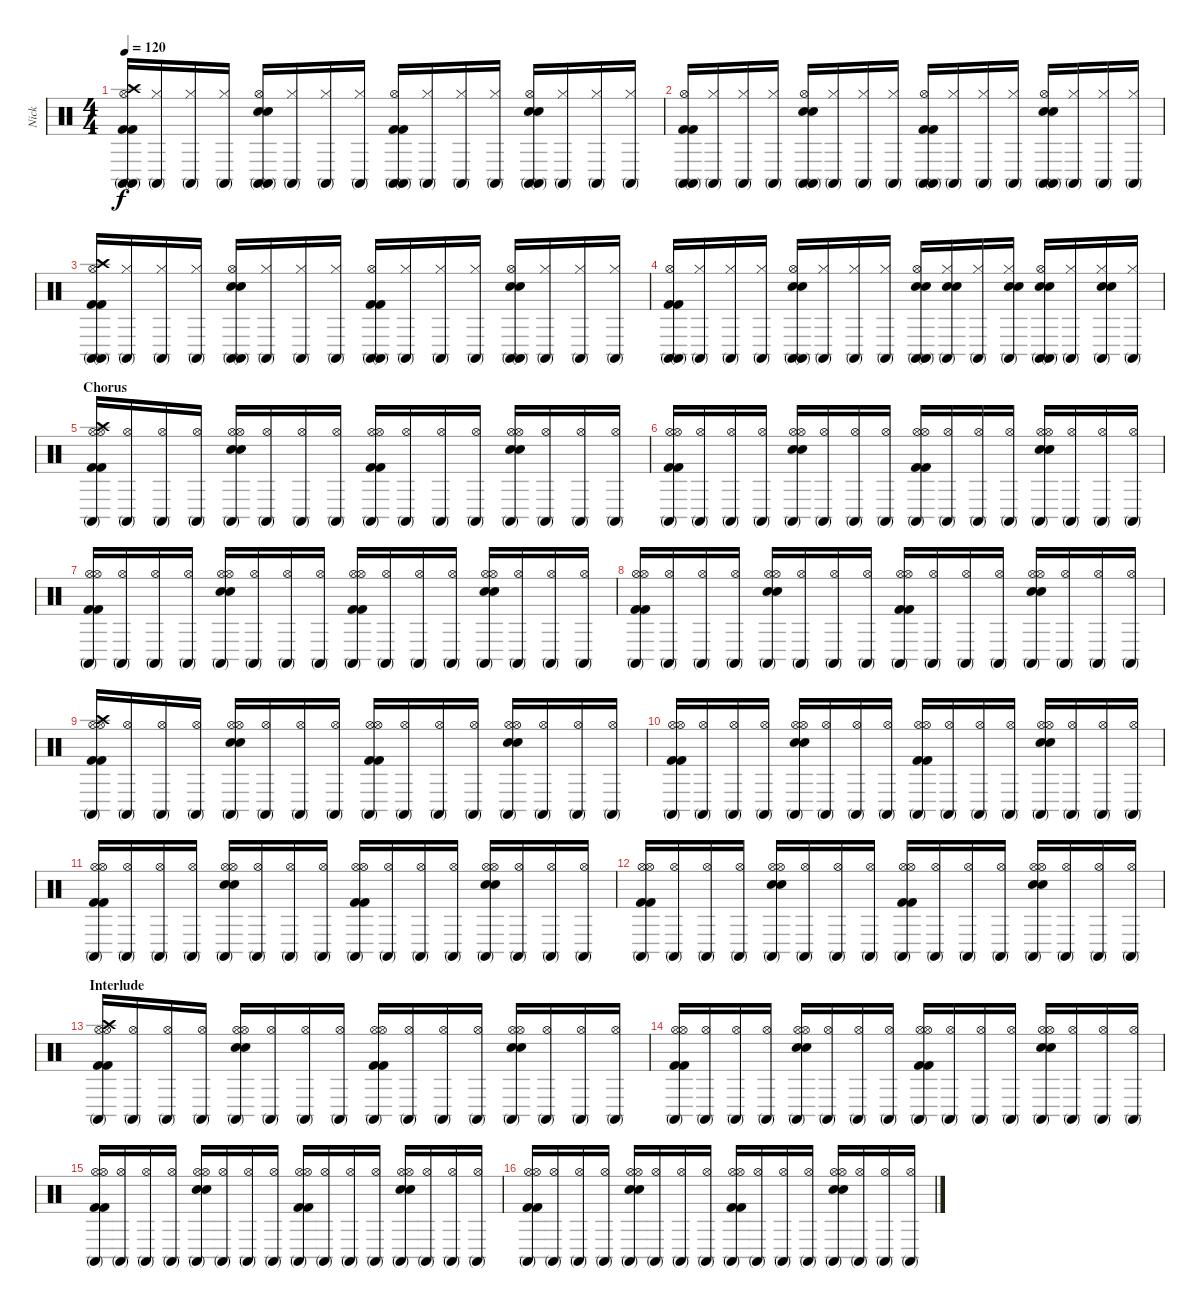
\track ("Nick" "Nick") {instrument percussion}
\staff {score}
\articulation defaults
\ts (4 4)
\tempo 120
\clef neutral
\ks c
("Conga high (mute)" "Hi-Hat (open)" "Crash high (hit)" "Kick (hit) 2" "Kick (hit) 2" "Conga high (mute)").16{dy f} ("Hi-Hat (closed)" "Conga high (mute)").16 ("Hi-Hat (closed)" "Conga high (mute)").16 ("Hi-Hat (closed)" "Conga high (mute)").16 ("Conga high (mute)" "Hi-Hat (open)" "Snare (hit) 2" "Snare (hit) 2" "Conga high (mute)").16 ("Hi-Hat (closed)" "Conga high (mute)").16 ("Hi-Hat (closed)" "Conga high (mute)").16 ("Hi-Hat (closed)" "Conga high (mute)").16 ("Conga high (mute)" "Hi-Hat (open)" "Kick (hit) 2" "Kick (hit) 2" "Conga high (mute)").16 ("Hi-Hat (closed)" "Conga high (mute)").16 ("Hi-Hat (closed)" "Conga high (mute)").16 ("Hi-Hat (closed)" "Conga high (mute)").16 ("Conga high (mute)" "Hi-Hat (open)" "Snare (hit) 2" "Snare (hit) 2" "Conga high (mute)").16 ("Hi-Hat (closed)" "Conga high (mute)").16 ("Hi-Hat (closed)" "Conga high (mute)").16 ("Hi-Hat (closed)" "Conga high (mute)").16 |
("Conga high (mute)" "Hi-Hat (open)" "Kick (hit) 2" "Kick (hit) 2" "Conga high (mute)").16 ("Hi-Hat (closed)" "Conga high (mute)").16 ("Hi-Hat (closed)" "Conga high (mute)").16 ("Hi-Hat (closed)" "Conga high (mute)").16 ("Conga high (mute)" "Hi-Hat (open)" "Snare (hit) 2" "Snare (hit) 2" "Conga high (mute)").16 ("Hi-Hat (closed)" "Conga high (mute)").16 ("Hi-Hat (closed)" "Conga high (mute)").16 ("Hi-Hat (closed)" "Conga high (mute)").16 ("Conga high (mute)" "Hi-Hat (open)" "Kick (hit) 2" "Kick (hit) 2" "Conga high (mute)").16 ("Hi-Hat (closed)" "Conga high (mute)").16 ("Hi-Hat (closed)" "Conga high (mute)").16 ("Hi-Hat (closed)" "Conga high (mute)").16 ("Conga high (mute)" "Hi-Hat (open)" "Snare (hit) 2" "Snare (hit) 2" "Conga high (mute)").16 ("Hi-Hat (closed)" "Conga high (mute)").16 ("Hi-Hat (closed)" "Conga high (mute)").16 ("Hi-Hat (closed)" "Conga high (mute)").16 |
("Conga high (mute)" "Hi-Hat (open)" "Crash high (hit)" "Kick (hit) 2" "Kick (hit) 2" "Conga high (mute)").16 ("Hi-Hat (closed)" "Conga high (mute)").16 ("Hi-Hat (closed)" "Conga high (mute)").16 ("Hi-Hat (closed)" "Conga high (mute)").16 ("Conga high (mute)" "Hi-Hat (open)" "Snare (hit) 2" "Snare (hit) 2" "Conga high (mute)").16 ("Hi-Hat (closed)" "Conga high (mute)").16 ("Hi-Hat (closed)" "Conga high (mute)").16 ("Hi-Hat (closed)" "Conga high (mute)").16 ("Conga high (mute)" "Hi-Hat (open)" "Kick (hit) 2" "Kick (hit) 2" "Conga high (mute)").16 ("Hi-Hat (closed)" "Conga high (mute)").16 ("Hi-Hat (closed)" "Conga high (mute)").16 ("Hi-Hat (closed)" "Conga high (mute)").16 ("Conga high (mute)" "Hi-Hat (open)" "Snare (hit) 2" "Snare (hit) 2" "Conga high (mute)").16 ("Hi-Hat (closed)" "Conga high (mute)").16 ("Hi-Hat (closed)" "Conga high (mute)").16 ("Hi-Hat (closed)" "Conga high (mute)").16 |
("Conga high (mute)" "Hi-Hat (open)" "Kick (hit) 2" "Kick (hit) 2" "Conga high (mute)").16 ("Hi-Hat (closed)" "Conga high (mute)").16 ("Hi-Hat (closed)" "Conga high (mute)").16 ("Hi-Hat (closed)" "Conga high (mute)").16 ("Conga high (mute)" "Hi-Hat (open)" "Snare (hit) 2" "Snare (hit) 2" "Conga high (mute)").16 ("Hi-Hat (closed)" "Conga high (mute)").16 ("Hi-Hat (closed)" "Conga high (mute)").16 ("Hi-Hat (closed)" "Conga high (mute)").16 ("Conga high (mute)" "Hi-Hat (open)" "Snare (hit) 2" "Snare (hit) 2" "Conga high (mute)").16 ("Hi-Hat (closed)" "Snare (hit) 2" "Snare (hit) 2" "Conga high (mute)").16 ("Hi-Hat (closed)" "Conga high (mute)").16 ("Hi-Hat (closed)" "Snare (hit) 2" "Snare (hit) 2" "Conga high (mute)").16 ("Conga high (mute)" "Hi-Hat (open)" "Snare (hit) 2" "Snare (hit) 2" "Conga high (mute)").16 ("Hi-Hat (closed)" "Conga high (mute)").16 ("Hi-Hat (closed)" "Snare (hit) 2" "Snare (hit) 2" "Conga high (mute)").16 ("Hi-Hat (closed)" "Conga high (mute)").16 |
\section ("" "Chorus")
("Hi-Hat (open)" "Hi-Hat (open)" "Crash high (hit)" "Kick (hit) 2" "Kick (hit) 2" "Conga high (mute)").16 ("Hi-Hat (open)" "Conga high (mute)").16 ("Hi-Hat (open)" "Conga high (mute)").16 ("Hi-Hat (open)" "Conga high (mute)").16 ("Hi-Hat (open)" "Hi-Hat (open)" "Snare (hit) 2" "Snare (hit) 2" "Conga high (mute)").16 ("Hi-Hat (open)" "Conga high (mute)").16 ("Hi-Hat (open)" "Conga high (mute)").16 ("Hi-Hat (open)" "Conga high (mute)").16 ("Hi-Hat (open)" "Hi-Hat (open)" "Kick (hit) 2" "Kick (hit) 2" "Conga high (mute)").16 ("Hi-Hat (open)" "Conga high (mute)").16 ("Hi-Hat (open)" "Conga high (mute)").16 ("Hi-Hat (open)" "Conga high (mute)").16 ("Hi-Hat (open)" "Hi-Hat (open)" "Snare (hit) 2" "Snare (hit) 2" "Conga high (mute)").16 ("Hi-Hat (open)" "Conga high (mute)").16 ("Hi-Hat (open)" "Conga high (mute)").16 ("Hi-Hat (open)" "Conga high (mute)").16 |
("Hi-Hat (open)" "Hi-Hat (open)" "Kick (hit) 2" "Kick (hit) 2" "Conga high (mute)").16 ("Hi-Hat (open)" "Conga high (mute)").16 ("Hi-Hat (open)" "Conga high (mute)").16 ("Hi-Hat (open)" "Conga high (mute)").16 ("Hi-Hat (open)" "Hi-Hat (open)" "Snare (hit) 2" "Snare (hit) 2" "Conga high (mute)").16 ("Hi-Hat (open)" "Conga high (mute)").16 ("Hi-Hat (open)" "Conga high (mute)").16 ("Hi-Hat (open)" "Conga high (mute)").16 ("Hi-Hat (open)" "Hi-Hat (open)" "Kick (hit) 2" "Kick (hit) 2" "Conga high (mute)").16 ("Hi-Hat (open)" "Conga high (mute)").16 ("Hi-Hat (open)" "Conga high (mute)").16 ("Hi-Hat (open)" "Conga high (mute)").16 ("Hi-Hat (open)" "Hi-Hat (open)" "Snare (hit) 2" "Snare (hit) 2" "Conga high (mute)").16 ("Hi-Hat (open)" "Conga high (mute)").16 ("Hi-Hat (open)" "Conga high (mute)").16 ("Hi-Hat (open)" "Conga high (mute)").16 |
("Hi-Hat (open)" "Hi-Hat (open)" "Kick (hit) 2" "Kick (hit) 2" "Conga high (mute)").16 ("Hi-Hat (open)" "Conga high (mute)").16 ("Hi-Hat (open)" "Conga high (mute)").16 ("Hi-Hat (open)" "Conga high (mute)").16 ("Hi-Hat (open)" "Hi-Hat (open)" "Snare (hit) 2" "Snare (hit) 2" "Conga high (mute)").16 ("Hi-Hat (open)" "Conga high (mute)").16 ("Hi-Hat (open)" "Conga high (mute)").16 ("Hi-Hat (open)" "Conga high (mute)").16 ("Hi-Hat (open)" "Hi-Hat (open)" "Kick (hit) 2" "Kick (hit) 2" "Conga high (mute)").16 ("Hi-Hat (open)" "Conga high (mute)").16 ("Hi-Hat (open)" "Conga high (mute)").16 ("Hi-Hat (open)" "Conga high (mute)").16 ("Hi-Hat (open)" "Hi-Hat (open)" "Snare (hit) 2" "Snare (hit) 2" "Conga high (mute)").16 ("Hi-Hat (open)" "Conga high (mute)").16 ("Hi-Hat (open)" "Conga high (mute)").16 ("Hi-Hat (open)" "Conga high (mute)").16 |
("Hi-Hat (open)" "Hi-Hat (open)" "Kick (hit) 2" "Kick (hit) 2" "Conga high (mute)").16 ("Hi-Hat (open)" "Conga high (mute)").16 ("Hi-Hat (open)" "Conga high (mute)").16 ("Hi-Hat (open)" "Conga high (mute)").16 ("Hi-Hat (open)" "Hi-Hat (open)" "Snare (hit) 2" "Snare (hit) 2" "Conga high (mute)").16 ("Hi-Hat (open)" "Conga high (mute)").16 ("Hi-Hat (open)" "Conga high (mute)").16 ("Hi-Hat (open)" "Conga high (mute)").16 ("Hi-Hat (open)" "Hi-Hat (open)" "Kick (hit) 2" "Kick (hit) 2" "Conga high (mute)").16 ("Hi-Hat (open)" "Conga high (mute)").16 ("Hi-Hat (open)" "Conga high (mute)").16 ("Hi-Hat (open)" "Conga high (mute)").16 ("Hi-Hat (open)" "Hi-Hat (open)" "Snare (hit) 2" "Snare (hit) 2" "Conga high (mute)").16 ("Hi-Hat (open)" "Conga high (mute)").16 ("Hi-Hat (open)" "Conga high (mute)").16 ("Hi-Hat (open)" "Conga high (mute)").16 |
("Hi-Hat (open)" "Hi-Hat (open)" "Crash high (hit)" "Kick (hit) 2" "Kick (hit) 2" "Conga high (mute)").16 ("Hi-Hat (open)" "Conga high (mute)").16 ("Hi-Hat (open)" "Conga high (mute)").16 ("Hi-Hat (open)" "Conga high (mute)").16 ("Hi-Hat (open)" "Hi-Hat (open)" "Snare (hit) 2" "Snare (hit) 2" "Conga high (mute)").16 ("Hi-Hat (open)" "Conga high (mute)").16 ("Hi-Hat (open)" "Conga high (mute)").16 ("Hi-Hat (open)" "Conga high (mute)").16 ("Hi-Hat (open)" "Hi-Hat (open)" "Kick (hit) 2" "Kick (hit) 2" "Conga high (mute)").16 ("Hi-Hat (open)" "Conga high (mute)").16 ("Hi-Hat (open)" "Conga high (mute)").16 ("Hi-Hat (open)" "Conga high (mute)").16 ("Hi-Hat (open)" "Hi-Hat (open)" "Snare (hit) 2" "Snare (hit) 2" "Conga high (mute)").16 ("Hi-Hat (open)" "Conga high (mute)").16 ("Hi-Hat (open)" "Conga high (mute)").16 ("Hi-Hat (open)" "Conga high (mute)").16 |
("Hi-Hat (open)" "Hi-Hat (open)" "Kick (hit) 2" "Kick (hit) 2" "Conga high (mute)").16 ("Hi-Hat (open)" "Conga high (mute)").16 ("Hi-Hat (open)" "Conga high (mute)").16 ("Hi-Hat (open)" "Conga high (mute)").16 ("Hi-Hat (open)" "Hi-Hat (open)" "Snare (hit) 2" "Snare (hit) 2" "Conga high (mute)").16 ("Hi-Hat (open)" "Conga high (mute)").16 ("Hi-Hat (open)" "Conga high (mute)").16 ("Hi-Hat (open)" "Conga high (mute)").16 ("Hi-Hat (open)" "Hi-Hat (open)" "Kick (hit) 2" "Kick (hit) 2" "Conga high (mute)").16 ("Hi-Hat (open)" "Conga high (mute)").16 ("Hi-Hat (open)" "Conga high (mute)").16 ("Hi-Hat (open)" "Conga high (mute)").16 ("Hi-Hat (open)" "Hi-Hat (open)" "Snare (hit) 2" "Snare (hit) 2" "Conga high (mute)").16 ("Hi-Hat (open)" "Conga high (mute)").16 ("Hi-Hat (open)" "Conga high (mute)").16 ("Hi-Hat (open)" "Conga high (mute)").16 |
("Hi-Hat (open)" "Hi-Hat (open)" "Kick (hit) 2" "Kick (hit) 2" "Conga high (mute)").16 ("Hi-Hat (open)" "Conga high (mute)").16 ("Hi-Hat (open)" "Conga high (mute)").16 ("Hi-Hat (open)" "Conga high (mute)").16 ("Hi-Hat (open)" "Hi-Hat (open)" "Snare (hit) 2" "Snare (hit) 2" "Conga high (mute)").16 ("Hi-Hat (open)" "Conga high (mute)").16 ("Hi-Hat (open)" "Conga high (mute)").16 ("Hi-Hat (open)" "Conga high (mute)").16 ("Hi-Hat (open)" "Hi-Hat (open)" "Kick (hit) 2" "Kick (hit) 2" "Conga high (mute)").16 ("Hi-Hat (open)" "Conga high (mute)").16 ("Hi-Hat (open)" "Conga high (mute)").16 ("Hi-Hat (open)" "Conga high (mute)").16 ("Hi-Hat (open)" "Hi-Hat (open)" "Snare (hit) 2" "Snare (hit) 2" "Conga high (mute)").16 ("Hi-Hat (open)" "Conga high (mute)").16 ("Hi-Hat (open)" "Conga high (mute)").16 ("Hi-Hat (open)" "Conga high (mute)").16 |
("Hi-Hat (open)" "Hi-Hat (open)" "Kick (hit) 2" "Kick (hit) 2" "Conga high (mute)").16 ("Hi-Hat (open)" "Conga high (mute)").16 ("Hi-Hat (open)" "Conga high (mute)").16 ("Hi-Hat (open)" "Conga high (mute)").16 ("Hi-Hat (open)" "Hi-Hat (open)" "Snare (hit) 2" "Snare (hit) 2" "Conga high (mute)").16 ("Hi-Hat (open)" "Conga high (mute)").16 ("Hi-Hat (open)" "Conga high (mute)").16 ("Hi-Hat (open)" "Conga high (mute)").16 ("Hi-Hat (open)" "Hi-Hat (open)" "Kick (hit) 2" "Kick (hit) 2" "Conga high (mute)").16 ("Hi-Hat (open)" "Conga high (mute)").16 ("Hi-Hat (open)" "Conga high (mute)").16 ("Hi-Hat (open)" "Conga high (mute)").16 ("Hi-Hat (open)" "Hi-Hat (open)" "Snare (hit) 2" "Snare (hit) 2" "Conga high (mute)").16 ("Hi-Hat (open)" "Conga high (mute)").16 ("Hi-Hat (open)" "Conga high (mute)").16 ("Hi-Hat (open)" "Conga high (mute)").16 |
\section ("" "Interlude")
("Hi-Hat (open)" "Hi-Hat (open)" "Crash high (hit)" "Kick (hit) 2" "Kick (hit) 2" "Conga high (mute)").16 ("Hi-Hat (open)" "Conga high (mute)").16 ("Hi-Hat (open)" "Conga high (mute)").16 ("Hi-Hat (open)" "Conga high (mute)").16 ("Hi-Hat (open)" "Hi-Hat (open)" "Snare (hit) 2" "Snare (hit) 2" "Conga high (mute)").16 ("Hi-Hat (open)" "Conga high (mute)").16 ("Hi-Hat (open)" "Conga high (mute)").16 ("Hi-Hat (open)" "Conga high (mute)").16 ("Hi-Hat (open)" "Hi-Hat (open)" "Kick (hit) 2" "Kick (hit) 2" "Conga high (mute)").16 ("Hi-Hat (open)" "Conga high (mute)").16 ("Hi-Hat (open)" "Conga high (mute)").16 ("Hi-Hat (open)" "Conga high (mute)").16 ("Hi-Hat (open)" "Hi-Hat (open)" "Snare (hit) 2" "Snare (hit) 2" "Conga high (mute)").16 ("Hi-Hat (open)" "Conga high (mute)").16 ("Hi-Hat (open)" "Conga high (mute)").16 ("Hi-Hat (open)" "Conga high (mute)").16 |
("Hi-Hat (open)" "Hi-Hat (open)" "Kick (hit) 2" "Kick (hit) 2" "Conga high (mute)").16 ("Hi-Hat (open)" "Conga high (mute)").16 ("Hi-Hat (open)" "Conga high (mute)").16 ("Hi-Hat (open)" "Conga high (mute)").16 ("Hi-Hat (open)" "Hi-Hat (open)" "Snare (hit) 2" "Snare (hit) 2" "Conga high (mute)").16 ("Hi-Hat (open)" "Conga high (mute)").16 ("Hi-Hat (open)" "Conga high (mute)").16 ("Hi-Hat (open)" "Conga high (mute)").16 ("Hi-Hat (open)" "Hi-Hat (open)" "Kick (hit) 2" "Kick (hit) 2" "Conga high (mute)").16 ("Hi-Hat (open)" "Conga high (mute)").16 ("Hi-Hat (open)" "Conga high (mute)").16 ("Hi-Hat (open)" "Conga high (mute)").16 ("Hi-Hat (open)" "Hi-Hat (open)" "Snare (hit) 2" "Snare (hit) 2" "Conga high (mute)").16 ("Hi-Hat (open)" "Conga high (mute)").16 ("Hi-Hat (open)" "Conga high (mute)").16 ("Hi-Hat (open)" "Conga high (mute)").16 |
("Hi-Hat (open)" "Hi-Hat (open)" "Kick (hit) 2" "Kick (hit) 2" "Conga high (mute)").16 ("Hi-Hat (open)" "Conga high (mute)").16 ("Hi-Hat (open)" "Conga high (mute)").16 ("Hi-Hat (open)" "Conga high (mute)").16 ("Hi-Hat (open)" "Hi-Hat (open)" "Snare (hit) 2" "Snare (hit) 2" "Conga high (mute)").16 ("Hi-Hat (open)" "Conga high (mute)").16 ("Hi-Hat (open)" "Conga high (mute)").16 ("Hi-Hat (open)" "Conga high (mute)").16 ("Hi-Hat (open)" "Hi-Hat (open)" "Kick (hit) 2" "Kick (hit) 2" "Conga high (mute)").16 ("Hi-Hat (open)" "Conga high (mute)").16 ("Hi-Hat (open)" "Conga high (mute)").16 ("Hi-Hat (open)" "Conga high (mute)").16 ("Hi-Hat (open)" "Hi-Hat (open)" "Snare (hit) 2" "Snare (hit) 2" "Conga high (mute)").16 ("Hi-Hat (open)" "Conga high (mute)").16 ("Hi-Hat (open)" "Conga high (mute)").16 ("Hi-Hat (open)" "Conga high (mute)").16 |
("Hi-Hat (open)" "Hi-Hat (open)" "Kick (hit) 2" "Kick (hit) 2" "Conga high (mute)").16 ("Hi-Hat (open)" "Conga high (mute)").16 ("Hi-Hat (open)" "Conga high (mute)").16 ("Hi-Hat (open)" "Conga high (mute)").16 ("Hi-Hat (open)" "Hi-Hat (open)" "Snare (hit) 2" "Snare (hit) 2" "Conga high (mute)").16 ("Hi-Hat (open)" "Conga high (mute)").16 ("Hi-Hat (open)" "Conga high (mute)").16 ("Hi-Hat (open)" "Conga high (mute)").16 ("Hi-Hat (open)" "Hi-Hat (open)" "Kick (hit) 2" "Kick (hit) 2" "Conga high (mute)").16 ("Hi-Hat (open)" "Conga high (mute)").16 ("Hi-Hat (open)" "Conga high (mute)").16 ("Hi-Hat (open)" "Conga high (mute)").16 ("Hi-Hat (open)" "Hi-Hat (open)" "Snare (hit) 2" "Snare (hit) 2" "Conga high (mute)").16 ("Hi-Hat (open)" "Conga high (mute)").16 ("Hi-Hat (open)" "Conga high (mute)").16 ("Hi-Hat (open)" "Conga high (mute)").16
